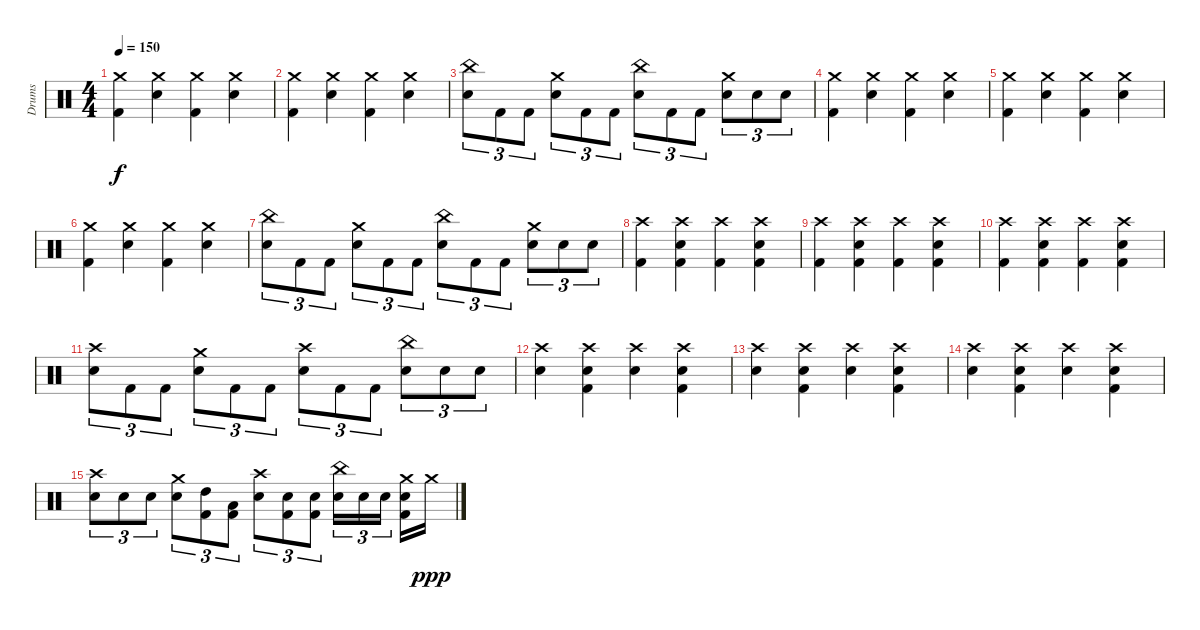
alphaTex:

\track ("Drums" "Drums") {instrument percussion}
\staff {score}
\articulation defaults
\ts (4 4)
\tempo 150
\clef neutral
\ks c
("Crash medium (hit)" "Kick (hit) 2").4{dy f} ("Crash medium (hit)" "Electric Snare (hit)").4 ("Crash medium (hit)" "Kick (hit) 2").4 ("Crash medium (hit)" "Electric Snare (hit)").4 |
("Crash medium (hit)" "Kick (hit) 2").4 ("Crash medium (hit)" "Electric Snare (hit)").4 ("Crash medium (hit)" "Kick (hit) 2").4 ("Crash medium (hit)" "Electric Snare (hit)").4 |
("China (hit)" "Electric Snare (hit)").8{tu (3 2)} "Kick (hit) 2".8{tu (3 2)} "Kick (hit) 2".8{tu (3 2)} ("Crash medium (hit)" "Electric Snare (hit)").8{tu (3 2)} "Kick (hit) 2".8{tu (3 2)} "Kick (hit) 2".8{tu (3 2)} ("China (hit)" "Electric Snare (hit)").8{tu (3 2)} "Kick (hit) 2".8{tu (3 2)} "Kick (hit) 2".8{tu (3 2)} ("Crash medium (hit)" "Electric Snare (hit)").8{tu (3 2)} "Electric Snare (hit)".8{tu (3 2)} "Electric Snare (hit)".8{tu (3 2)} |
("Crash medium (hit)" "Kick (hit) 2").4{volume 16} ("Crash medium (hit)" "Electric Snare (hit)").4 ("Crash medium (hit)" "Kick (hit) 2").4 ("Crash medium (hit)" "Electric Snare (hit)").4 |
("Crash medium (hit)" "Kick (hit) 2").4 ("Crash medium (hit)" "Electric Snare (hit)").4 ("Crash medium (hit)" "Kick (hit) 2").4 ("Crash medium (hit)" "Electric Snare (hit)").4 |
("Crash medium (hit)" "Kick (hit) 2").4 ("Crash medium (hit)" "Electric Snare (hit)").4 ("Crash medium (hit)" "Kick (hit) 2").4 ("Crash medium (hit)" "Electric Snare (hit)").4 |
("China (hit)" "Electric Snare (hit)").8{tu (3 2)} "Kick (hit) 2".8{tu (3 2)} "Kick (hit) 2".8{tu (3 2)} ("Crash medium (hit)" "Electric Snare (hit)").8{tu (3 2)} "Kick (hit) 2".8{tu (3 2)} "Kick (hit) 2".8{tu (3 2)} ("China (hit)" "Electric Snare (hit)").8{tu (3 2)} "Kick (hit) 2".8{tu (3 2)} "Kick (hit) 2".8{tu (3 2)} ("Crash medium (hit)" "Electric Snare (hit)").8{tu (3 2)} "Electric Snare (hit)".8{tu (3 2)} "Electric Snare (hit)".8{tu (3 2)} |
("Crash high (hit)" "Kick (hit) 2").4{volume 16} ("Crash high (hit)" "Electric Snare (hit)" "Kick (hit) 2").4 ("Crash high (hit)" "Kick (hit) 2").4 ("Crash high (hit)" "Electric Snare (hit)" "Kick (hit) 2").4 |
("Crash high (hit)" "Kick (hit) 2").4 ("Crash high (hit)" "Electric Snare (hit)" "Kick (hit) 2").4 ("Crash high (hit)" "Kick (hit) 2").4 ("Crash high (hit)" "Electric Snare (hit)" "Kick (hit) 2").4 |
("Crash high (hit)" "Kick (hit) 2").4 ("Crash high (hit)" "Electric Snare (hit)" "Kick (hit) 2").4 ("Crash high (hit)" "Kick (hit) 2").4 ("Crash high (hit)" "Electric Snare (hit)" "Kick (hit) 2").4 |
("Crash high (hit)" "Electric Snare (hit)").8{tu (3 2)} "Kick (hit) 2".8{tu (3 2)} "Kick (hit) 2".8{tu (3 2)} ("Crash medium (hit)" "Electric Snare (hit)").8{tu (3 2)} "Kick (hit) 2".8{tu (3 2)} "Kick (hit) 2".8{tu (3 2)} ("Crash high (hit)" "Electric Snare (hit)").8{tu (3 2)} "Kick (hit) 2".8{tu (3 2)} "Kick (hit) 2".8{tu (3 2)} ("China (hit)" "Electric Snare (hit)").8{tu (3 2)} "Electric Snare (hit)".8{tu (3 2)} "Electric Snare (hit)".8{tu (3 2)} |
("Crash high (hit)" "Electric Snare (hit)").4{volume 16} ("Crash high (hit)" "Electric Snare (hit)" "Kick (hit) 2").4 ("Crash high (hit)" "Electric Snare (hit)").4 ("Crash high (hit)" "Electric Snare (hit)" "Kick (hit) 2").4 |
("Crash high (hit)" "Electric Snare (hit)").4 ("Crash high (hit)" "Electric Snare (hit)" "Kick (hit) 2").4 ("Crash high (hit)" "Electric Snare (hit)").4 ("Crash high (hit)" "Electric Snare (hit)" "Kick (hit) 2").4 |
("Crash high (hit)" "Electric Snare (hit)").4 ("Crash high (hit)" "Electric Snare (hit)" "Kick (hit) 2").4 ("Crash high (hit)" "Electric Snare (hit)").4 ("Crash high (hit)" "Electric Snare (hit)" "Kick (hit) 2").4 |
("Crash high (hit)" "Electric Snare (hit)").8{tu (3 2)} "Electric Snare (hit)".8{tu (3 2)} "Electric Snare (hit)".8{tu (3 2)} ("Crash medium (hit)" "Electric Snare (hit)").8{tu (3 2)} ("High Tom (hit)" "Kick (hit) 2").8{tu (3 2)} ("Low Tom (hit)" "Kick (hit) 2").8{tu (3 2)} ("Crash high (hit)" "Electric Snare (hit)").8{tu (3 2)} ("Electric Snare (hit)" "Kick (hit) 2").8{tu (3 2)} ("Electric Snare (hit)" "Kick (hit) 2").8{tu (3 2)} ("China (hit)" "Electric Snare (hit)").16{tu (3 2)} "Electric Snare (hit)".16{tu (3 2)} "Electric Snare (hit)".16{tu (3 2)} ("Crash medium (hit)" "Electric Snare (hit)" "Kick (hit) 2").16 "Crash medium (hit)".16{dy ppp}
